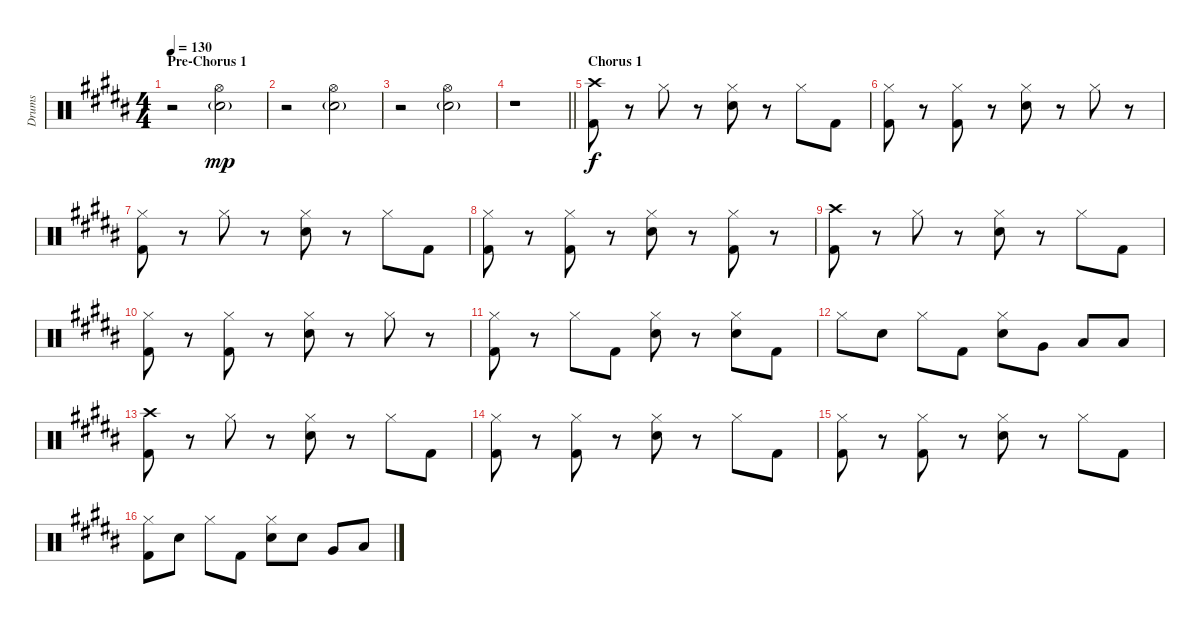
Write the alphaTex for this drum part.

\track ("Drums" "Drums") {instrument percussion}
\staff {score}
\articulation defaults
\ts (4 4)
\section ("" "Pre-Chorus 1")
\tempo 130
\clef neutral
\ks b
r.2{dy mp} ("Hi-Hat (open)" "Electric Snare (hit)"{g}).2 |
r.2 ("Hi-Hat (open)" "Electric Snare (hit)"{g}).2 |
r.2 ("Hi-Hat (open)" "Electric Snare (hit)"{g}).2 |
\barLineRight lightlight
r.1 |
\section ("" "Chorus 1")
("Crash high (hit)" "Kick (hit) 2").8{dy f} r.8 "Hi-Hat (closed)".8 r.8 ("Hi-Hat (closed)" "Electric Snare (hit)").8 r.8 "Hi-Hat (closed)".8 "Kick (hit) 2".8 |
("Hi-Hat (closed)" "Kick (hit) 2").8 r.8 ("Hi-Hat (closed)" "Kick (hit) 2").8 r.8 ("Hi-Hat (closed)" "Electric Snare (hit)").8 r.8 "Hi-Hat (closed)".8 r.8 |
("Hi-Hat (closed)" "Kick (hit) 2").8 r.8 "Hi-Hat (closed)".8 r.8 ("Hi-Hat (closed)" "Electric Snare (hit)").8 r.8 "Hi-Hat (closed)".8 "Kick (hit) 2".8 |
("Hi-Hat (closed)" "Kick (hit) 2").8 r.8 ("Hi-Hat (closed)" "Kick (hit) 2").8 r.8 ("Hi-Hat (closed)" "Electric Snare (hit)").8 r.8 ("Hi-Hat (closed)" "Kick (hit) 2").8 r.8 |
("Crash high (hit)" "Kick (hit) 2").8 r.8 "Hi-Hat (closed)".8 r.8 ("Hi-Hat (closed)" "Electric Snare (hit)").8 r.8 "Hi-Hat (closed)".8 "Kick (hit) 2".8 |
("Hi-Hat (closed)" "Kick (hit) 2").8 r.8 ("Hi-Hat (closed)" "Kick (hit) 2").8 r.8 ("Hi-Hat (closed)" "Electric Snare (hit)").8 r.8 "Hi-Hat (closed)".8 r.8 |
("Hi-Hat (closed)" "Kick (hit) 2").8 r.8 "Hi-Hat (closed)".8 "Kick (hit) 2".8 ("Hi-Hat (closed)" "Electric Snare (hit)").8 r.8 ("Hi-Hat (closed)" "Electric Snare (hit)").8 "Kick (hit) 2".8 |
"Hi-Hat (closed)".8 "Electric Snare (hit)".8 "Hi-Hat (closed)".8 "Kick (hit) 2".8 ("Hi-Hat (closed)" "Electric Snare (hit)").8 "Very Low Tom (hit)".8 "Low Floor Tom (hit)".8 "Low Floor Tom (hit)".8 |
("Crash high (hit)" "Kick (hit) 2").8 r.8 "Hi-Hat (closed)".8 r.8 ("Hi-Hat (closed)" "Electric Snare (hit)").8 r.8 "Hi-Hat (closed)".8 "Kick (hit) 2".8 |
("Hi-Hat (closed)" "Kick (hit) 2").8 r.8 ("Hi-Hat (closed)" "Kick (hit) 2").8 r.8 ("Hi-Hat (closed)" "Electric Snare (hit)").8 r.8 "Hi-Hat (closed)".8 "Kick (hit) 2".8 |
("Hi-Hat (closed)" "Kick (hit) 2").8 r.8 ("Hi-Hat (closed)" "Kick (hit) 2").8 r.8 ("Hi-Hat (closed)" "Electric Snare (hit)").8 r.8 "Hi-Hat (closed)".8 "Kick (hit) 2".8 |
("Hi-Hat (closed)" "Kick (hit) 2").8 "Electric Snare (hit)".8 "Hi-Hat (closed)".8 "Kick (hit) 2".8 ("Hi-Hat (closed)" "Electric Snare (hit)").8 "Electric Snare (hit)".8 "Very Low Tom (hit)".8 "Low Floor Tom (hit)".8
